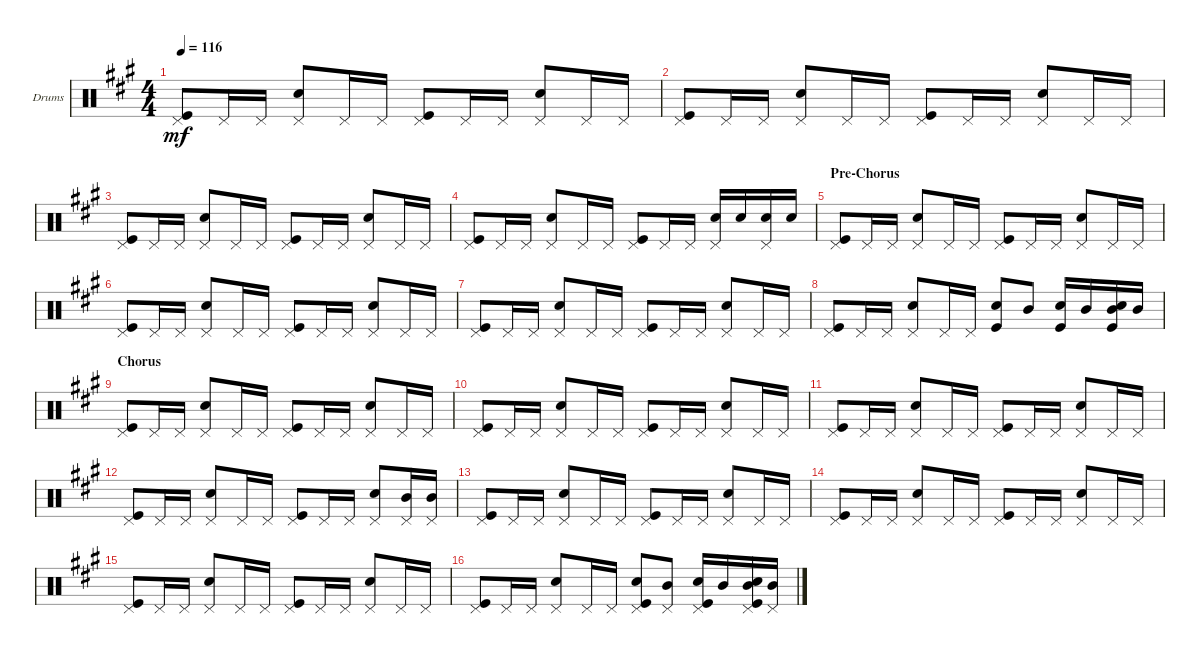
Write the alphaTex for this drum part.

\defaultSystemsLayout 4
\bracketExtendMode groupsimilarinstruments
\firstSystemTrackNameOrientation horizontal
\otherSystemsTrackNameOrientation horizontal
\track ("Drumkit" "Drums") {instrument percussion}
\staff {score}
\articulation defaults
\ts (4 4)
\tempo 116
\clef neutral
\ks a
("Pedal Hi-Hat (hit)" "Kick (hit)").8{dy mf} "Pedal Hi-Hat (hit)".16 "Pedal Hi-Hat (hit)".16 ("Pedal Hi-Hat (hit)" "Snare (hit) 2").8 "Pedal Hi-Hat (hit)".16 "Pedal Hi-Hat (hit)".16 ("Pedal Hi-Hat (hit)" "Kick (hit)").8 "Pedal Hi-Hat (hit)".16 "Pedal Hi-Hat (hit)".16 ("Pedal Hi-Hat (hit)" "Snare (hit) 2").8 "Pedal Hi-Hat (hit)".16 "Pedal Hi-Hat (hit)".16 |
("Pedal Hi-Hat (hit)" "Kick (hit)").8 "Pedal Hi-Hat (hit)".16 "Pedal Hi-Hat (hit)".16 ("Pedal Hi-Hat (hit)" "Snare (hit) 2").8 "Pedal Hi-Hat (hit)".16 "Pedal Hi-Hat (hit)".16 ("Pedal Hi-Hat (hit)" "Kick (hit)").8 "Pedal Hi-Hat (hit)".16 "Pedal Hi-Hat (hit)".16 ("Pedal Hi-Hat (hit)" "Snare (hit) 2").8 "Pedal Hi-Hat (hit)".16 "Pedal Hi-Hat (hit)".16 |
("Pedal Hi-Hat (hit)" "Kick (hit)").8 "Pedal Hi-Hat (hit)".16 "Pedal Hi-Hat (hit)".16 ("Pedal Hi-Hat (hit)" "Snare (hit) 2").8 "Pedal Hi-Hat (hit)".16 "Pedal Hi-Hat (hit)".16 ("Pedal Hi-Hat (hit)" "Kick (hit)").8 "Pedal Hi-Hat (hit)".16 "Pedal Hi-Hat (hit)".16 ("Pedal Hi-Hat (hit)" "Snare (hit) 2").8 "Pedal Hi-Hat (hit)".16 "Pedal Hi-Hat (hit)".16 |
("Pedal Hi-Hat (hit)" "Kick (hit)").8 "Pedal Hi-Hat (hit)".16 "Pedal Hi-Hat (hit)".16 ("Pedal Hi-Hat (hit)" "Snare (hit) 2").8 "Pedal Hi-Hat (hit)".16 "Pedal Hi-Hat (hit)".16 ("Pedal Hi-Hat (hit)" "Kick (hit)").8 "Pedal Hi-Hat (hit)".16 "Pedal Hi-Hat (hit)".16 ("Pedal Hi-Hat (hit)" "Snare (hit) 2").16 "Snare (hit) 2".16 ("Pedal Hi-Hat (hit)" "Snare (hit) 2").16 "Snare (hit) 2".16 |
\section ("" "Pre-Chorus")
("Pedal Hi-Hat (hit)" "Kick (hit)").8 "Pedal Hi-Hat (hit)".16 "Pedal Hi-Hat (hit)".16 ("Pedal Hi-Hat (hit)" "Snare (hit) 2").8 "Pedal Hi-Hat (hit)".16 "Pedal Hi-Hat (hit)".16 ("Pedal Hi-Hat (hit)" "Kick (hit)").8 "Pedal Hi-Hat (hit)".16 "Pedal Hi-Hat (hit)".16 ("Pedal Hi-Hat (hit)" "Snare (hit) 2").8 "Pedal Hi-Hat (hit)".16 "Pedal Hi-Hat (hit)".16 |
("Pedal Hi-Hat (hit)" "Kick (hit)").8 "Pedal Hi-Hat (hit)".16 "Pedal Hi-Hat (hit)".16 ("Pedal Hi-Hat (hit)" "Snare (hit) 2").8 "Pedal Hi-Hat (hit)".16 "Pedal Hi-Hat (hit)".16 ("Pedal Hi-Hat (hit)" "Kick (hit)").8 "Pedal Hi-Hat (hit)".16 "Pedal Hi-Hat (hit)".16 ("Pedal Hi-Hat (hit)" "Snare (hit) 2").8 "Pedal Hi-Hat (hit)".16 "Pedal Hi-Hat (hit)".16 |
("Pedal Hi-Hat (hit)" "Kick (hit)").8 "Pedal Hi-Hat (hit)".16 "Pedal Hi-Hat (hit)".16 ("Pedal Hi-Hat (hit)" "Snare (hit) 2").8 "Pedal Hi-Hat (hit)".16 "Pedal Hi-Hat (hit)".16 ("Pedal Hi-Hat (hit)" "Kick (hit)").8 "Pedal Hi-Hat (hit)".16 "Pedal Hi-Hat (hit)".16 ("Pedal Hi-Hat (hit)" "Snare (hit) 2").8 "Pedal Hi-Hat (hit)".16 "Pedal Hi-Hat (hit)".16 |
("Pedal Hi-Hat (hit)" "Kick (hit)").8 "Pedal Hi-Hat (hit)".16 "Pedal Hi-Hat (hit)".16 ("Pedal Hi-Hat (hit)" "Snare (hit) 2").8 "Pedal Hi-Hat (hit)".16 "Pedal Hi-Hat (hit)".16 ("Kick (hit)" "Snare (hit) 2").8 "Mid Tom (hit)".8 ("Kick (hit)" "Snare (hit) 2").16 "Mid Tom (hit)".16 ("Mid Tom (hit)" "Kick (hit)" "Snare (hit) 2").16 "Mid Tom (hit)".16 |
\section ("" "Chorus")
("Pedal Hi-Hat (hit)" "Kick (hit)").8 "Pedal Hi-Hat (hit)".16 "Pedal Hi-Hat (hit)".16 ("Pedal Hi-Hat (hit)" "Snare (hit) 2").8 "Pedal Hi-Hat (hit)".16 "Pedal Hi-Hat (hit)".16 ("Pedal Hi-Hat (hit)" "Kick (hit)").8 "Pedal Hi-Hat (hit)".16 "Pedal Hi-Hat (hit)".16 ("Pedal Hi-Hat (hit)" "Snare (hit) 2").8 "Pedal Hi-Hat (hit)".16 "Pedal Hi-Hat (hit)".16 |
("Pedal Hi-Hat (hit)" "Kick (hit)").8 "Pedal Hi-Hat (hit)".16 "Pedal Hi-Hat (hit)".16 ("Pedal Hi-Hat (hit)" "Snare (hit) 2").8 "Pedal Hi-Hat (hit)".16 "Pedal Hi-Hat (hit)".16 ("Pedal Hi-Hat (hit)" "Kick (hit)").8 "Pedal Hi-Hat (hit)".16 "Pedal Hi-Hat (hit)".16 ("Pedal Hi-Hat (hit)" "Snare (hit) 2").8 "Pedal Hi-Hat (hit)".16 "Pedal Hi-Hat (hit)".16 |
("Pedal Hi-Hat (hit)" "Kick (hit)").8 "Pedal Hi-Hat (hit)".16 "Pedal Hi-Hat (hit)".16 ("Pedal Hi-Hat (hit)" "Snare (hit) 2").8 "Pedal Hi-Hat (hit)".16 "Pedal Hi-Hat (hit)".16 ("Pedal Hi-Hat (hit)" "Kick (hit)").8 "Pedal Hi-Hat (hit)".16 "Pedal Hi-Hat (hit)".16 ("Pedal Hi-Hat (hit)" "Snare (hit) 2").8 "Pedal Hi-Hat (hit)".16 "Pedal Hi-Hat (hit)".16 |
("Pedal Hi-Hat (hit)" "Kick (hit)").8 "Pedal Hi-Hat (hit)".16 "Pedal Hi-Hat (hit)".16 ("Pedal Hi-Hat (hit)" "Snare (hit) 2").8 "Pedal Hi-Hat (hit)".16 "Pedal Hi-Hat (hit)".16 ("Pedal Hi-Hat (hit)" "Kick (hit)").8 "Pedal Hi-Hat (hit)".16 "Pedal Hi-Hat (hit)".16 ("Pedal Hi-Hat (hit)" "Snare (hit) 2").8 ("Pedal Hi-Hat (hit)" "Mid Tom (hit)").16 ("Pedal Hi-Hat (hit)" "Mid Tom (hit)").16 |
("Pedal Hi-Hat (hit)" "Kick (hit)").8 "Pedal Hi-Hat (hit)".16 "Pedal Hi-Hat (hit)".16 ("Pedal Hi-Hat (hit)" "Snare (hit) 2").8 "Pedal Hi-Hat (hit)".16 "Pedal Hi-Hat (hit)".16 ("Pedal Hi-Hat (hit)" "Kick (hit)").8 "Pedal Hi-Hat (hit)".16 "Pedal Hi-Hat (hit)".16 ("Pedal Hi-Hat (hit)" "Snare (hit) 2").8 "Pedal Hi-Hat (hit)".16 "Pedal Hi-Hat (hit)".16 |
("Pedal Hi-Hat (hit)" "Kick (hit)").8 "Pedal Hi-Hat (hit)".16 "Pedal Hi-Hat (hit)".16 ("Pedal Hi-Hat (hit)" "Snare (hit) 2").8 "Pedal Hi-Hat (hit)".16 "Pedal Hi-Hat (hit)".16 ("Pedal Hi-Hat (hit)" "Kick (hit)").8 "Pedal Hi-Hat (hit)".16 "Pedal Hi-Hat (hit)".16 ("Pedal Hi-Hat (hit)" "Snare (hit) 2").8 "Pedal Hi-Hat (hit)".16 "Pedal Hi-Hat (hit)".16 |
("Pedal Hi-Hat (hit)" "Kick (hit)").8 "Pedal Hi-Hat (hit)".16 "Pedal Hi-Hat (hit)".16 ("Pedal Hi-Hat (hit)" "Snare (hit) 2").8 "Pedal Hi-Hat (hit)".16 "Pedal Hi-Hat (hit)".16 ("Pedal Hi-Hat (hit)" "Kick (hit)").8 "Pedal Hi-Hat (hit)".16 "Pedal Hi-Hat (hit)".16 ("Pedal Hi-Hat (hit)" "Snare (hit) 2").8 "Pedal Hi-Hat (hit)".16 "Pedal Hi-Hat (hit)".16 |
("Pedal Hi-Hat (hit)" "Kick (hit)").8 "Pedal Hi-Hat (hit)".16 "Pedal Hi-Hat (hit)".16 ("Pedal Hi-Hat (hit)" "Snare (hit) 2").8 "Pedal Hi-Hat (hit)".16 "Pedal Hi-Hat (hit)".16 ("Kick (hit)" "Snare (hit) 2" "Pedal Hi-Hat (hit)").8 ("Mid Tom (hit)" "Pedal Hi-Hat (hit)").8 ("Kick (hit)" "Snare (hit) 2" "Pedal Hi-Hat (hit)").16 "Mid Tom (hit)".16 ("Mid Tom (hit)" "Kick (hit)" "Snare (hit) 2" "Pedal Hi-Hat (hit)").16 ("Mid Tom (hit)" "Pedal Hi-Hat (hit)").16
